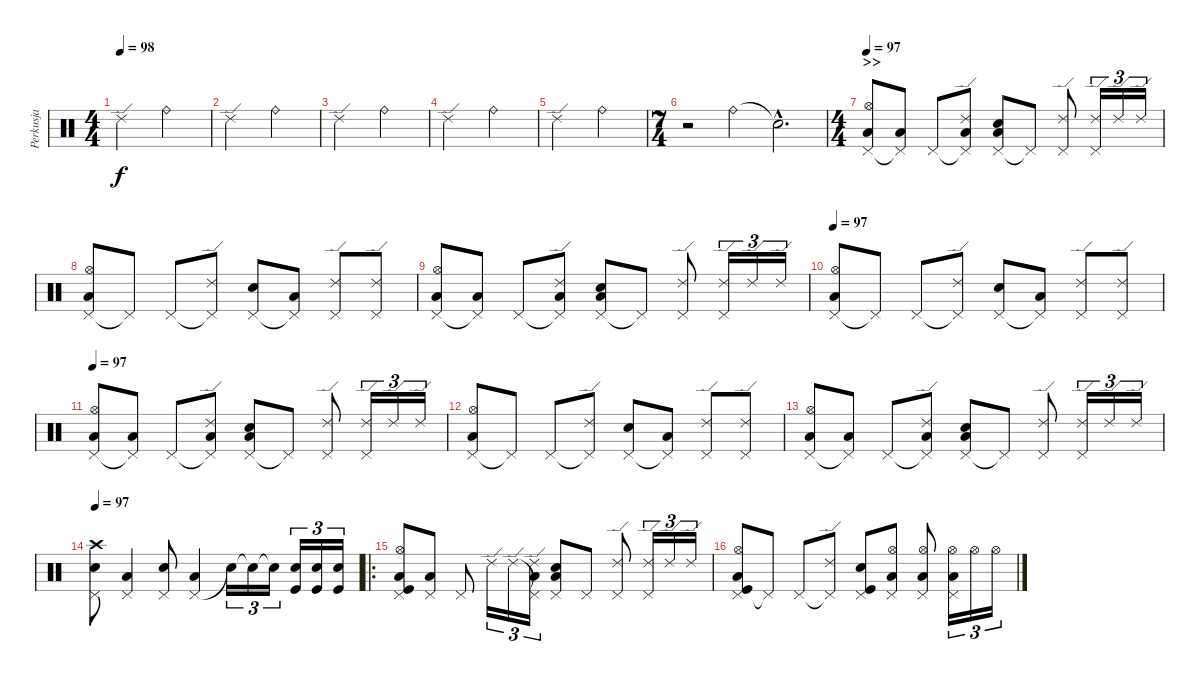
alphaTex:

\track ("Perkusja" "Perkusja") {instrument percussion}
\staff {score}
\articulation defaults
\ts (4 4)
\tempo 98
\clef neutral
\ks c "Ride (edge) 2".2{dy f} "Ride (bell)".2
|
"Ride (edge) 2".2 "Ride (bell)".2 |
"Ride (edge) 2".2 "Ride (bell)".2 |
"Ride (edge) 2".2 "Ride (bell)".2 |
"Ride (edge) 2".2 "Ride (bell)".2 |
\ts (7 4)
r.2 "Ride (bell)".2 "Snare (hit)"{hac t}.2{d} |
\ts (4 4)
\section ("" ">>")
\tempo 97
("Pedal Hi-Hat (hit)" "Hi-Hat (open)" "Low Floor Tom (hit)").8 ("Pedal Hi-Hat (hit)"{t} "Low Floor Tom (hit)").8 "Pedal Hi-Hat (hit)".8 ("Pedal Hi-Hat (hit)"{t} "Ride (edge) 2" "Low Floor Tom (hit)").8 ("Pedal Hi-Hat (hit)" "Electric Snare (hit)" "Low Floor Tom (hit)").8 "Pedal Hi-Hat (hit)"{t}.8 ("Pedal Hi-Hat (hit)" "Ride (edge) 2").8 ("Pedal Hi-Hat (hit)" "Ride (edge) 2").16{tu (3 2)} "Ride (edge) 2".16{tu (3 2)} "Ride (edge) 2".16{tu (3 2)} |
("Pedal Hi-Hat (hit)" "Hi-Hat (open)" "Low Floor Tom (hit)").8 "Pedal Hi-Hat (hit)"{t}.8 "Pedal Hi-Hat (hit)".8 ("Pedal Hi-Hat (hit)"{t} "Ride (edge) 2").8 ("Pedal Hi-Hat (hit)" "Electric Snare (hit)").8 ("Pedal Hi-Hat (hit)"{t} "Low Floor Tom (hit)").8 ("Pedal Hi-Hat (hit)" "Ride (edge) 2").8 ("Pedal Hi-Hat (hit)" "Ride (edge) 2").8 |
("Pedal Hi-Hat (hit)" "Hi-Hat (open)" "Low Floor Tom (hit)").8 ("Pedal Hi-Hat (hit)"{t} "Low Floor Tom (hit)").8 "Pedal Hi-Hat (hit)".8 ("Pedal Hi-Hat (hit)"{t} "Ride (edge) 2" "Low Floor Tom (hit)").8 ("Pedal Hi-Hat (hit)" "Electric Snare (hit)" "Low Floor Tom (hit)").8 "Pedal Hi-Hat (hit)"{t}.8 ("Pedal Hi-Hat (hit)" "Ride (edge) 2").8 ("Pedal Hi-Hat (hit)" "Ride (edge) 2").16{tu (3 2)} "Ride (edge) 2".16{tu (3 2)} "Ride (edge) 2".16{tu (3 2)} |
\tempo 97
("Pedal Hi-Hat (hit)" "Hi-Hat (open)" "Low Floor Tom (hit)").8 "Pedal Hi-Hat (hit)"{t}.8 "Pedal Hi-Hat (hit)".8 ("Pedal Hi-Hat (hit)"{t} "Ride (edge) 2").8 ("Pedal Hi-Hat (hit)" "Electric Snare (hit)").8 ("Pedal Hi-Hat (hit)"{t} "Low Floor Tom (hit)").8 ("Pedal Hi-Hat (hit)" "Ride (edge) 2").8 ("Pedal Hi-Hat (hit)" "Ride (edge) 2").8 |
\tempo 97
("Pedal Hi-Hat (hit)" "Hi-Hat (open)" "Low Floor Tom (hit)").8 ("Pedal Hi-Hat (hit)"{t} "Low Floor Tom (hit)").8 "Pedal Hi-Hat (hit)".8 ("Pedal Hi-Hat (hit)"{t} "Ride (edge) 2" "Low Floor Tom (hit)").8 ("Pedal Hi-Hat (hit)" "Electric Snare (hit)" "Low Floor Tom (hit)").8 "Pedal Hi-Hat (hit)"{t}.8 ("Pedal Hi-Hat (hit)" "Ride (edge) 2").8 ("Pedal Hi-Hat (hit)" "Ride (edge) 2").16{tu (3 2)} "Ride (edge) 2".16{tu (3 2)} "Ride (edge) 2".16{tu (3 2)} |
("Pedal Hi-Hat (hit)" "Hi-Hat (open)" "Low Floor Tom (hit)").8 "Pedal Hi-Hat (hit)"{t}.8 "Pedal Hi-Hat (hit)".8 ("Pedal Hi-Hat (hit)"{t} "Ride (edge) 2").8 ("Pedal Hi-Hat (hit)" "Electric Snare (hit)").8 ("Pedal Hi-Hat (hit)"{t} "Low Floor Tom (hit)").8 ("Pedal Hi-Hat (hit)" "Ride (edge) 2").8 ("Pedal Hi-Hat (hit)" "Ride (edge) 2").8 |
("Pedal Hi-Hat (hit)" "Hi-Hat (open)" "Low Floor Tom (hit)").8 ("Pedal Hi-Hat (hit)"{t} "Low Floor Tom (hit)").8 "Pedal Hi-Hat (hit)".8 ("Pedal Hi-Hat (hit)"{t} "Ride (edge) 2" "Low Floor Tom (hit)").8 ("Pedal Hi-Hat (hit)" "Electric Snare (hit)" "Low Floor Tom (hit)").8 "Pedal Hi-Hat (hit)"{t}.8 ("Pedal Hi-Hat (hit)" "Ride (edge) 2").8 ("Pedal Hi-Hat (hit)" "Ride (edge) 2").16{tu (3 2)} "Ride (edge) 2".16{tu (3 2)} "Ride (edge) 2".16{tu (3 2)} |
\tempo 97
("Pedal Hi-Hat (hit)" "Crash high (hit)" "Electric Snare (hit)").8 ("Pedal Hi-Hat (hit)" "Low Floor Tom (hit)").4 ("Pedal Hi-Hat (hit)" "Electric Snare (hit)").8 ("Pedal Hi-Hat (hit)" "Low Floor Tom (hit)").4 "Electric Snare (hit)"{t}.16{tu (3 2)} "Electric Snare (hit)"{t}.16{tu (3 2)} "Electric Snare (hit)"{t}.16{tu (3 2)} ("Electric Snare (hit)" "Kick (hit)").16{tu (3 2)} ("Electric Snare (hit)" "Kick (hit)").16{tu (3 2)} ("Electric Snare (hit)" "Kick (hit)").16{tu (3 2)} |
\ro
("Pedal Hi-Hat (hit)" "Hi-Hat (open)" "Kick (hit)" "Low Floor Tom (hit)").8 ("Pedal Hi-Hat (hit)" "Low Floor Tom (hit)").8 "Pedal Hi-Hat (hit)".8 "Ride (edge) 2".16{tu (3 2)} "Ride (edge) 2".16{tu (3 2)} ("Pedal Hi-Hat (hit)"{t} "Ride (edge) 2" "Low Floor Tom (hit)").16{tu (3 2)} ("Pedal Hi-Hat (hit)" "Electric Snare (hit)" "Low Floor Tom (hit)").8 "Pedal Hi-Hat (hit)".8 ("Pedal Hi-Hat (hit)" "Ride (edge) 2").8 ("Pedal Hi-Hat (hit)" "Ride (edge) 2").16{tu (3 2)} "Ride (edge) 2".16{tu (3 2)} "Ride (edge) 2".16{tu (3 2)} |
("Pedal Hi-Hat (hit)" "Hi-Hat (open)" "Kick (hit)" "Low Floor Tom (hit)").8 "Pedal Hi-Hat (hit)"{t}.8 "Pedal Hi-Hat (hit)".8 ("Pedal Hi-Hat (hit)"{t} "Ride (edge) 2").8 ("Pedal Hi-Hat (hit)" "Electric Snare (hit)" "Kick (hit)").8 ("Pedal Hi-Hat (hit)" "Low Floor Tom (hit)" "Hi-Hat (open)").8 ("Pedal Hi-Hat (hit)" "Low Floor Tom (hit)" "Hi-Hat (open)").8 ("Pedal Hi-Hat (hit)" "Low Floor Tom (hit)" "Hi-Hat (open)").16{tu (3 2)} "Hi-Hat (open)".16{tu (3 2)} "Hi-Hat (open)".16{tu (3 2)}
